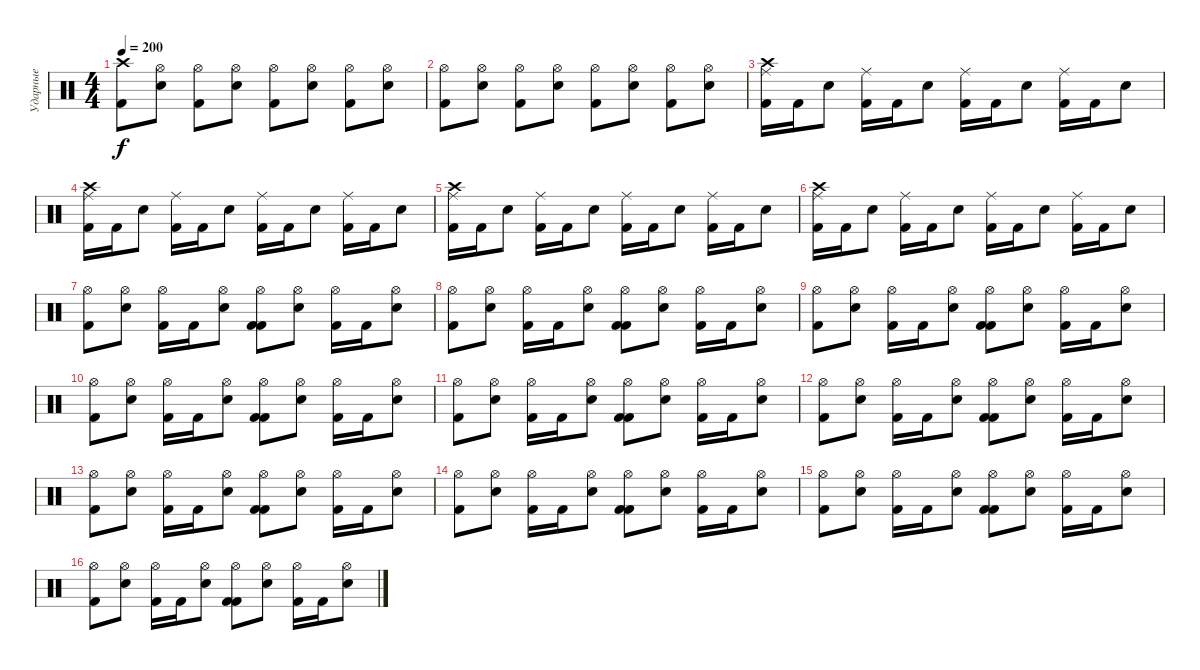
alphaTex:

\track ("Ударные" "Ударные") {instrument percussion}
\staff {score}
\articulation defaults
\ts (4 4)
\tempo 200
\clef neutral
\ks c
("Crash high (hit)" "Kick (hit) 2").8{dy f} ("Hi-Hat (open)" "Snare (hit) 2").8 ("Hi-Hat (open)" "Kick (hit) 2").8 ("Hi-Hat (open)" "Snare (hit) 2").8 ("Hi-Hat (open)" "Kick (hit) 2").8 ("Hi-Hat (open)" "Snare (hit) 2").8 ("Hi-Hat (open)" "Kick (hit) 2").8 ("Hi-Hat (open)" "Snare (hit) 2").8 |
("Hi-Hat (open)" "Kick (hit) 2").8 ("Hi-Hat (open)" "Snare (hit) 2").8 ("Hi-Hat (open)" "Kick (hit) 2").8 ("Hi-Hat (open)" "Snare (hit) 2").8 ("Hi-Hat (open)" "Kick (hit) 2").8 ("Hi-Hat (open)" "Snare (hit) 2").8 ("Hi-Hat (open)" "Kick (hit) 2").8 ("Hi-Hat (open)" "Snare (hit) 2").8 |
("Ride (middle)" "Kick (hit) 2" "Crash high (hit)").16 "Kick (hit) 2".16 "Electric Snare (hit)".8 ("Ride (middle)" "Kick (hit) 2").16 "Kick (hit) 2".16 "Electric Snare (hit)".8 ("Ride (middle)" "Kick (hit) 2").16 "Kick (hit) 2".16 "Electric Snare (hit)".8 ("Ride (middle)" "Kick (hit) 2").16 "Kick (hit) 2".16 "Electric Snare (hit)".8 |
("Ride (middle)" "Kick (hit) 2" "Crash high (hit)").16 "Kick (hit) 2".16 "Electric Snare (hit)".8 ("Ride (middle)" "Kick (hit) 2").16 "Kick (hit) 2".16 "Electric Snare (hit)".8 ("Ride (middle)" "Kick (hit) 2").16 "Kick (hit) 2".16 "Electric Snare (hit)".8 ("Ride (middle)" "Kick (hit) 2").16 "Kick (hit) 2".16 "Electric Snare (hit)".8 |
("Ride (middle)" "Kick (hit) 2" "Crash high (hit)").16 "Kick (hit) 2".16 "Electric Snare (hit)".8 ("Ride (middle)" "Kick (hit) 2").16 "Kick (hit) 2".16 "Electric Snare (hit)".8 ("Ride (middle)" "Kick (hit) 2").16 "Kick (hit) 2".16 "Electric Snare (hit)".8 ("Ride (middle)" "Kick (hit) 2").16 "Kick (hit) 2".16 "Electric Snare (hit)".8 |
("Ride (middle)" "Kick (hit) 2" "Crash high (hit)").16 "Kick (hit) 2".16 "Electric Snare (hit)".8 ("Ride (middle)" "Kick (hit) 2").16 "Kick (hit) 2".16 "Electric Snare (hit)".8 ("Ride (middle)" "Kick (hit) 2").16 "Kick (hit) 2".16 "Electric Snare (hit)".8 ("Ride (middle)" "Kick (hit) 2").16 "Kick (hit) 2".16 "Electric Snare (hit)".8 |
("Kick (hit) 2" "Hi-Hat (open)").8 ("Hi-Hat (open)" "Electric Snare (hit)").8 ("Kick (hit) 2" "Hi-Hat (open)").16 "Kick (hit) 2".16 ("Hi-Hat (open)" "Electric Snare (hit)").8 ("Kick (hit) 2" "Kick (hit) 2" "Hi-Hat (open)").8 ("Hi-Hat (open)" "Electric Snare (hit)").8 ("Kick (hit) 2" "Hi-Hat (open)").16 "Kick (hit) 2".16 ("Hi-Hat (open)" "Electric Snare (hit)").8 |
("Kick (hit) 2" "Hi-Hat (open)").8 ("Hi-Hat (open)" "Electric Snare (hit)").8 ("Kick (hit) 2" "Hi-Hat (open)").16 "Kick (hit) 2".16 ("Hi-Hat (open)" "Electric Snare (hit)").8 ("Kick (hit) 2" "Kick (hit) 2" "Hi-Hat (open)").8 ("Hi-Hat (open)" "Electric Snare (hit)").8 ("Kick (hit) 2" "Hi-Hat (open)").16 "Kick (hit) 2".16 ("Hi-Hat (open)" "Electric Snare (hit)").8 |
("Kick (hit) 2" "Hi-Hat (open)").8 ("Hi-Hat (open)" "Electric Snare (hit)").8 ("Kick (hit) 2" "Hi-Hat (open)").16 "Kick (hit) 2".16 ("Hi-Hat (open)" "Electric Snare (hit)").8 ("Kick (hit) 2" "Kick (hit) 2" "Hi-Hat (open)").8 ("Hi-Hat (open)" "Electric Snare (hit)").8 ("Kick (hit) 2" "Hi-Hat (open)").16 "Kick (hit) 2".16 ("Hi-Hat (open)" "Electric Snare (hit)").8 |
("Kick (hit) 2" "Hi-Hat (open)").8 ("Hi-Hat (open)" "Electric Snare (hit)").8 ("Kick (hit) 2" "Hi-Hat (open)").16 "Kick (hit) 2".16 ("Hi-Hat (open)" "Electric Snare (hit)").8 ("Kick (hit) 2" "Kick (hit) 2" "Hi-Hat (open)").8 ("Hi-Hat (open)" "Electric Snare (hit)").8 ("Kick (hit) 2" "Hi-Hat (open)").16 "Kick (hit) 2".16 ("Hi-Hat (open)" "Electric Snare (hit)").8 |
("Kick (hit) 2" "Hi-Hat (open)").8 ("Hi-Hat (open)" "Electric Snare (hit)").8 ("Kick (hit) 2" "Hi-Hat (open)").16 "Kick (hit) 2".16 ("Hi-Hat (open)" "Electric Snare (hit)").8 ("Kick (hit) 2" "Kick (hit) 2" "Hi-Hat (open)").8 ("Hi-Hat (open)" "Electric Snare (hit)").8 ("Kick (hit) 2" "Hi-Hat (open)").16 "Kick (hit) 2".16 ("Hi-Hat (open)" "Electric Snare (hit)").8 |
("Kick (hit) 2" "Hi-Hat (open)").8 ("Hi-Hat (open)" "Electric Snare (hit)").8 ("Kick (hit) 2" "Hi-Hat (open)").16 "Kick (hit) 2".16 ("Hi-Hat (open)" "Electric Snare (hit)").8 ("Kick (hit) 2" "Kick (hit) 2" "Hi-Hat (open)").8 ("Hi-Hat (open)" "Electric Snare (hit)").8 ("Kick (hit) 2" "Hi-Hat (open)").16 "Kick (hit) 2".16 ("Hi-Hat (open)" "Electric Snare (hit)").8 |
("Kick (hit) 2" "Hi-Hat (open)").8 ("Hi-Hat (open)" "Electric Snare (hit)").8 ("Kick (hit) 2" "Hi-Hat (open)").16 "Kick (hit) 2".16 ("Hi-Hat (open)" "Electric Snare (hit)").8 ("Kick (hit) 2" "Kick (hit) 2" "Hi-Hat (open)").8 ("Hi-Hat (open)" "Electric Snare (hit)").8 ("Kick (hit) 2" "Hi-Hat (open)").16 "Kick (hit) 2".16 ("Hi-Hat (open)" "Electric Snare (hit)").8 |
("Kick (hit) 2" "Hi-Hat (open)").8 ("Hi-Hat (open)" "Electric Snare (hit)").8 ("Kick (hit) 2" "Hi-Hat (open)").16 "Kick (hit) 2".16 ("Hi-Hat (open)" "Electric Snare (hit)").8 ("Kick (hit) 2" "Kick (hit) 2" "Hi-Hat (open)").8 ("Hi-Hat (open)" "Electric Snare (hit)").8 ("Kick (hit) 2" "Hi-Hat (open)").16 "Kick (hit) 2".16 ("Hi-Hat (open)" "Electric Snare (hit)").8 |
("Kick (hit) 2" "Hi-Hat (open)").8 ("Hi-Hat (open)" "Electric Snare (hit)").8 ("Kick (hit) 2" "Hi-Hat (open)").16 "Kick (hit) 2".16 ("Hi-Hat (open)" "Electric Snare (hit)").8 ("Kick (hit) 2" "Kick (hit) 2" "Hi-Hat (open)").8 ("Hi-Hat (open)" "Electric Snare (hit)").8 ("Kick (hit) 2" "Hi-Hat (open)").16 "Kick (hit) 2".16 ("Hi-Hat (open)" "Electric Snare (hit)").8 |
("Kick (hit) 2" "Hi-Hat (open)").8 ("Hi-Hat (open)" "Electric Snare (hit)").8 ("Kick (hit) 2" "Hi-Hat (open)").16 "Kick (hit) 2".16 ("Hi-Hat (open)" "Electric Snare (hit)").8 ("Kick (hit) 2" "Kick (hit) 2" "Hi-Hat (open)").8 ("Hi-Hat (open)" "Electric Snare (hit)").8 ("Kick (hit) 2" "Hi-Hat (open)").16 "Kick (hit) 2".16 ("Hi-Hat (open)" "Electric Snare (hit)").8
